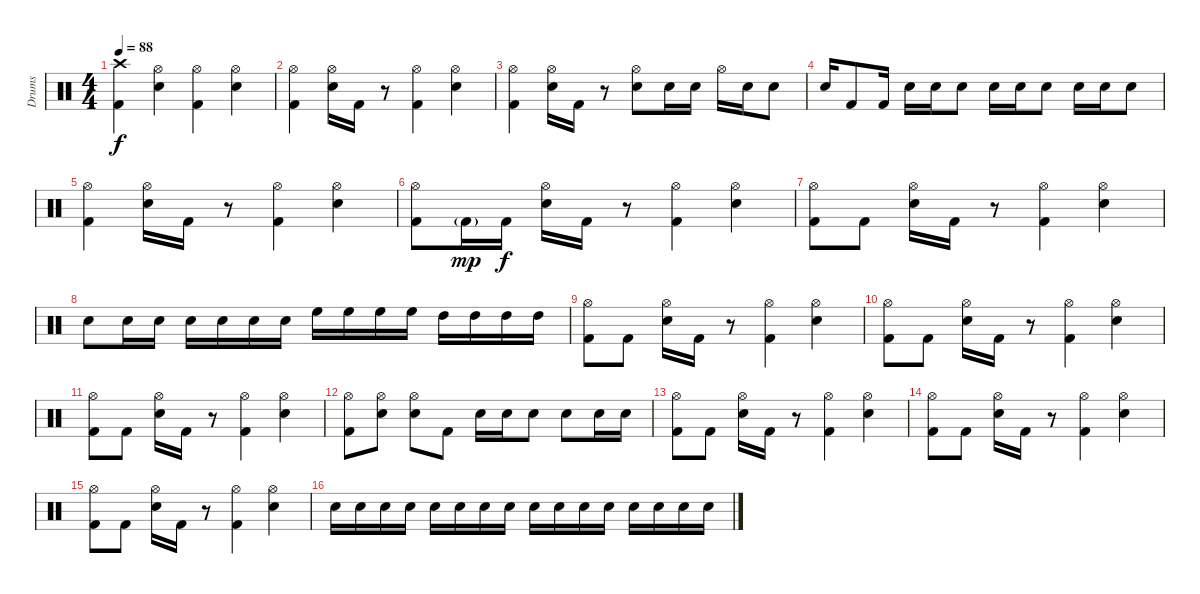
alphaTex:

\track ("Drums" "Drums") {instrument percussion}
\staff {score}
\articulation defaults
\ts (4 4)
\tempo 88
\clef neutral
\ks c
("Crash high (hit)" "Kick (hit) 2").4{dy f} ("Hi-Hat (open)" "Electric Snare (hit)").4 ("Hi-Hat (open)" "Kick (hit) 2").4 ("Hi-Hat (open)" "Electric Snare (hit)").4 |
("Hi-Hat (open)" "Kick (hit) 2").4 ("Hi-Hat (open)" "Electric Snare (hit)").16 "Kick (hit) 2".16 r.8 ("Hi-Hat (open)" "Kick (hit) 2").4 ("Hi-Hat (open)" "Electric Snare (hit)").4 |
("Hi-Hat (open)" "Kick (hit) 2").4 ("Hi-Hat (open)" "Electric Snare (hit)").16 "Kick (hit) 2".16 r.8 ("Hi-Hat (open)" "Electric Snare (hit)").8 "Electric Snare (hit)".16 "Electric Snare (hit)".16 "Hi-Hat (open)".16 "Electric Snare (hit)".16 "Electric Snare (hit)".8 |
"Electric Snare (hit)".16 "Kick (hit) 2".8 "Kick (hit) 2".16 "Electric Snare (hit)".16 "Electric Snare (hit)".16 "Electric Snare (hit)".8 "Electric Snare (hit)".16 "Electric Snare (hit)".16 "Electric Snare (hit)".8 "Electric Snare (hit)".16 "Electric Snare (hit)".16 "Electric Snare (hit)".8 |
("Hi-Hat (open)" "Kick (hit) 2").4 ("Hi-Hat (open)" "Electric Snare (hit)").16 "Kick (hit) 2".16 r.8 ("Hi-Hat (open)" "Kick (hit) 2").4 ("Hi-Hat (open)" "Electric Snare (hit)").4 |
("Hi-Hat (open)" "Kick (hit) 2").8 "Kick (hit) 2"{g}.16{dy mp} "Kick (hit) 2".16{dy f} ("Hi-Hat (open)" "Electric Snare (hit)").16 "Kick (hit) 2".16 r.8 ("Hi-Hat (open)" "Kick (hit) 2").4 ("Hi-Hat (open)" "Electric Snare (hit)").4 |
("Hi-Hat (open)" "Kick (hit) 2").8 "Kick (hit) 2".8 ("Hi-Hat (open)" "Electric Snare (hit)").16 "Kick (hit) 2".16 r.8 ("Hi-Hat (open)" "Kick (hit) 2").4 ("Hi-Hat (open)" "Electric Snare (hit)").4 |
"Electric Snare (hit)".8 "Electric Snare (hit)".16 "Electric Snare (hit)".16 "Electric Snare (hit)".16 "Electric Snare (hit)".16 "Electric Snare (hit)".16 "Electric Snare (hit)".16 "High Floor Tom (hit)".16 "High Floor Tom (hit)".16 "High Floor Tom (hit)".16 "High Floor Tom (hit)".16 "High Tom (hit)".16 "High Tom (hit)".16 "High Tom (hit)".16 "High Tom (hit)".16 |
("Hi-Hat (open)" "Kick (hit) 2").8 "Kick (hit) 2".8 ("Hi-Hat (open)" "Electric Snare (hit)").16 "Kick (hit) 2".16 r.8 ("Hi-Hat (open)" "Kick (hit) 2").4 ("Hi-Hat (open)" "Electric Snare (hit)").4 |
("Hi-Hat (open)" "Kick (hit) 2").8 "Kick (hit) 2".8 ("Hi-Hat (open)" "Electric Snare (hit)").16 "Kick (hit) 2".16 r.8 ("Hi-Hat (open)" "Kick (hit) 2").4 ("Hi-Hat (open)" "Electric Snare (hit)").4 |
("Hi-Hat (open)" "Kick (hit) 2").8 "Kick (hit) 2".8 ("Hi-Hat (open)" "Electric Snare (hit)").16 "Kick (hit) 2".16 r.8 ("Hi-Hat (open)" "Kick (hit) 2").4 ("Hi-Hat (open)" "Electric Snare (hit)").4 |
("Hi-Hat (open)" "Kick (hit) 2").8 ("Hi-Hat (open)" "Electric Snare (hit)").8 ("Hi-Hat (open)" "Electric Snare (hit)").8 "Kick (hit) 2".8 "Electric Snare (hit)".16 "Electric Snare (hit)".16 "Electric Snare (hit)".8 "Electric Snare (hit)".8 "Electric Snare (hit)".16 "Electric Snare (hit)".16 |
("Hi-Hat (open)" "Kick (hit) 2").8 "Kick (hit) 2".8 ("Hi-Hat (open)" "Electric Snare (hit)").16 "Kick (hit) 2".16 r.8 ("Hi-Hat (open)" "Kick (hit) 2").4 ("Hi-Hat (open)" "Electric Snare (hit)").4 |
("Hi-Hat (open)" "Kick (hit) 2").8 "Kick (hit) 2".8 ("Hi-Hat (open)" "Electric Snare (hit)").16 "Kick (hit) 2".16 r.8 ("Hi-Hat (open)" "Kick (hit) 2").4 ("Hi-Hat (open)" "Electric Snare (hit)").4 |
("Hi-Hat (open)" "Kick (hit) 2").8 "Kick (hit) 2".8 ("Hi-Hat (open)" "Electric Snare (hit)").16 "Kick (hit) 2".16 r.8 ("Hi-Hat (open)" "Kick (hit) 2").4 ("Hi-Hat (open)" "Electric Snare (hit)").4 |
"Electric Snare (hit)".16 "Electric Snare (hit)".16 "Electric Snare (hit)".16 "Electric Snare (hit)".16 "Electric Snare (hit)".16 "Electric Snare (hit)".16 "Electric Snare (hit)".16 "Electric Snare (hit)".16 "Electric Snare (hit)".16 "Electric Snare (hit)".16 "Electric Snare (hit)".16 "Electric Snare (hit)".16 "Electric Snare (hit)".16 "Electric Snare (hit)".16 "Electric Snare (hit)".16 "Electric Snare (hit)".16
